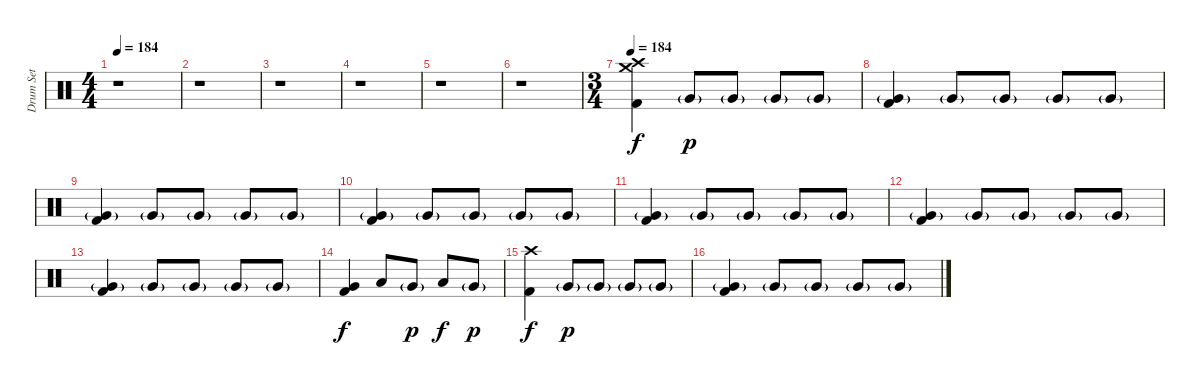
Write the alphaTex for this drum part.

\track ("Drum Set" "Drum Set") {instrument percussion}
\staff {score}
\articulation defaults
\ts (4 4)
\tempo 184
\clef neutral
\ks c
r.1{dy f} |
r.1 |
r.1 |
r.1 |
r.1 |
r.1 |
\ts (3 4)
\tempo 184
("Crash high (hit)" "Crash medium (hit)" "Kick (hit) 2").4 "Very Low Tom (hit)"{g}.8{dy p} "Very Low Tom (hit)"{g}.8 "Very Low Tom (hit)"{g}.8 "Very Low Tom (hit)"{g}.8 |
("Very Low Tom (hit)"{g} "Kick (hit) 2").4 "Very Low Tom (hit)"{g}.8 "Very Low Tom (hit)"{g}.8 "Very Low Tom (hit)"{g}.8 "Very Low Tom (hit)"{g}.8 |
("Very Low Tom (hit)"{g} "Kick (hit) 2").4 "Very Low Tom (hit)"{g}.8 "Very Low Tom (hit)"{g}.8 "Very Low Tom (hit)"{g}.8 "Very Low Tom (hit)"{g}.8 |
("Very Low Tom (hit)"{g} "Kick (hit) 2").4 "Very Low Tom (hit)"{g}.8 "Very Low Tom (hit)"{g}.8 "Very Low Tom (hit)"{g}.8 "Very Low Tom (hit)"{g}.8 |
("Very Low Tom (hit)"{g} "Kick (hit) 2").4 "Very Low Tom (hit)"{g}.8 "Very Low Tom (hit)"{g}.8 "Very Low Tom (hit)"{g}.8 "Very Low Tom (hit)"{g}.8 |
("Very Low Tom (hit)"{g} "Kick (hit) 2").4 "Very Low Tom (hit)"{g}.8 "Very Low Tom (hit)"{g}.8 "Very Low Tom (hit)"{g}.8 "Very Low Tom (hit)"{g}.8 |
("Very Low Tom (hit)"{g} "Kick (hit) 2").4 "Very Low Tom (hit)"{g}.8 "Very Low Tom (hit)"{g}.8 "Very Low Tom (hit)"{g}.8 "Very Low Tom (hit)"{g}.8 |
("Very Low Tom (hit)" "Kick (hit) 2").4{dy f} "Low Tom (hit)".8 "Very Low Tom (hit)"{g}.8{dy p} "Low Floor Tom (hit)".8{dy f} "Very Low Tom (hit)"{g}.8{dy p} |
("Crash high (hit)" "Kick (hit) 2").4{dy f} "Very Low Tom (hit)"{g}.8{dy p} "Very Low Tom (hit)"{g}.8 "Very Low Tom (hit)"{g}.8 "Very Low Tom (hit)"{g}.8 |
("Very Low Tom (hit)"{g} "Kick (hit) 2").4 "Very Low Tom (hit)"{g}.8 "Very Low Tom (hit)"{g}.8 "Very Low Tom (hit)"{g}.8 "Very Low Tom (hit)"{g}.8
